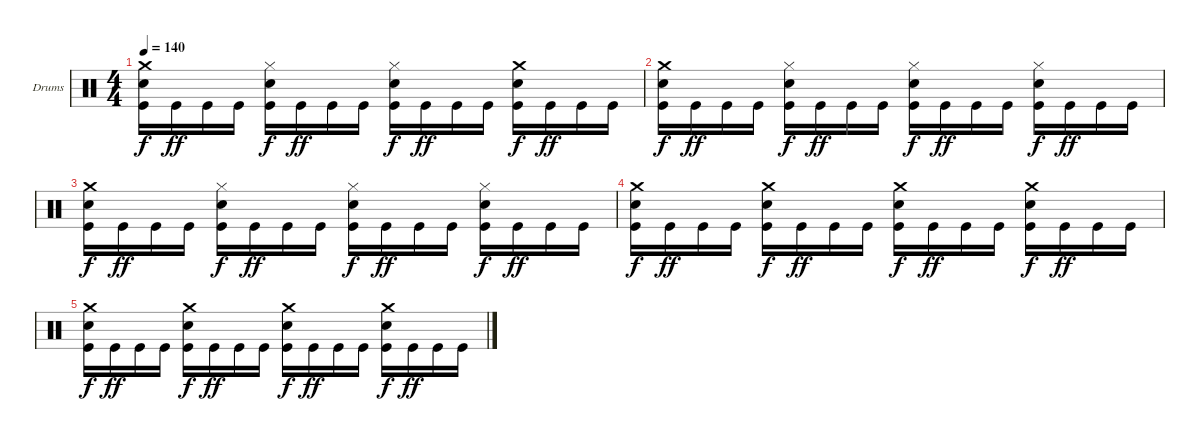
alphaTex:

\defaultSystemsLayout 4
\bracketExtendMode groupsimilarinstruments
\firstSystemTrackNameOrientation horizontal
\otherSystemsTrackNameOrientation horizontal
\track ("Drumkit" "Drums") {instrument percussion}
\staff {score}
\articulation defaults
\ts (4 4)
\tempo 140
\clef neutral
\ks c
("Crash medium (hit)" "Snare (hit) 2" "Kick (hit)").16{dy f} "Kick (hit)".16{dy ff} "Kick (hit)".16 "Kick (hit)".16 ("Hi-Hat (closed)" "Snare (hit) 2" "Kick (hit)").16{dy f} "Kick (hit)".16{dy ff} "Kick (hit)".16 "Kick (hit)".16 ("Hi-Hat (closed)" "Snare (hit) 2" "Kick (hit)").16{dy f} "Kick (hit)".16{dy ff} "Kick (hit)".16 "Kick (hit)".16 ("Crash medium (hit)" "Snare (hit) 2" "Kick (hit)").16{dy f} "Kick (hit)".16{dy ff} "Kick (hit)".16 "Kick (hit)".16 |
("Crash medium (hit)" "Snare (hit) 2" "Kick (hit)").16{dy f} "Kick (hit)".16{dy ff} "Kick (hit)".16 "Kick (hit)".16 ("Hi-Hat (closed)" "Snare (hit) 2" "Kick (hit)").16{dy f} "Kick (hit)".16{dy ff} "Kick (hit)".16 "Kick (hit)".16 ("Hi-Hat (closed)" "Snare (hit) 2" "Kick (hit)").16{dy f} "Kick (hit)".16{dy ff} "Kick (hit)".16 "Kick (hit)".16 ("Hi-Hat (closed)" "Snare (hit) 2" "Kick (hit)").16{dy f} "Kick (hit)".16{dy ff} "Kick (hit)".16 "Kick (hit)".16 |
("Crash medium (hit)" "Snare (hit) 2" "Kick (hit)").16{dy f} "Kick (hit)".16{dy ff} "Kick (hit)".16 "Kick (hit)".16 ("Hi-Hat (closed)" "Snare (hit) 2" "Kick (hit)").16{dy f} "Kick (hit)".16{dy ff} "Kick (hit)".16 "Kick (hit)".16 ("Hi-Hat (closed)" "Snare (hit) 2" "Kick (hit)").16{dy f} "Kick (hit)".16{dy ff} "Kick (hit)".16 "Kick (hit)".16 ("Hi-Hat (closed)" "Snare (hit) 2" "Kick (hit)").16{dy f} "Kick (hit)".16{dy ff} "Kick (hit)".16 "Kick (hit)".16 |
("Crash medium (hit)" "Snare (hit) 2" "Kick (hit)").16{dy f} "Kick (hit)".16{dy ff} "Kick (hit)".16 "Kick (hit)".16 ("Crash medium (hit)" "Snare (hit) 2" "Kick (hit)").16{dy f} "Kick (hit)".16{dy ff} "Kick (hit)".16 "Kick (hit)".16 ("Crash medium (hit)" "Snare (hit) 2" "Kick (hit)").16{dy f} "Kick (hit)".16{dy ff} "Kick (hit)".16 "Kick (hit)".16 ("Crash medium (hit)" "Snare (hit) 2" "Kick (hit)").16{dy f} "Kick (hit)".16{dy ff} "Kick (hit)".16 "Kick (hit)".16 |
("Crash medium (hit)" "Snare (hit) 2" "Kick (hit)").16{dy f} "Kick (hit)".16{dy ff} "Kick (hit)".16 "Kick (hit)".16 ("Crash medium (hit)" "Snare (hit) 2" "Kick (hit)").16{dy f} "Kick (hit)".16{dy ff} "Kick (hit)".16 "Kick (hit)".16 ("Crash medium (hit)" "Snare (hit) 2" "Kick (hit)").16{dy f} "Kick (hit)".16{dy ff} "Kick (hit)".16 "Kick (hit)".16 ("Crash medium (hit)" "Snare (hit) 2" "Kick (hit)").16{dy f} "Kick (hit)".16{dy ff} "Kick (hit)".16 "Kick (hit)".16
